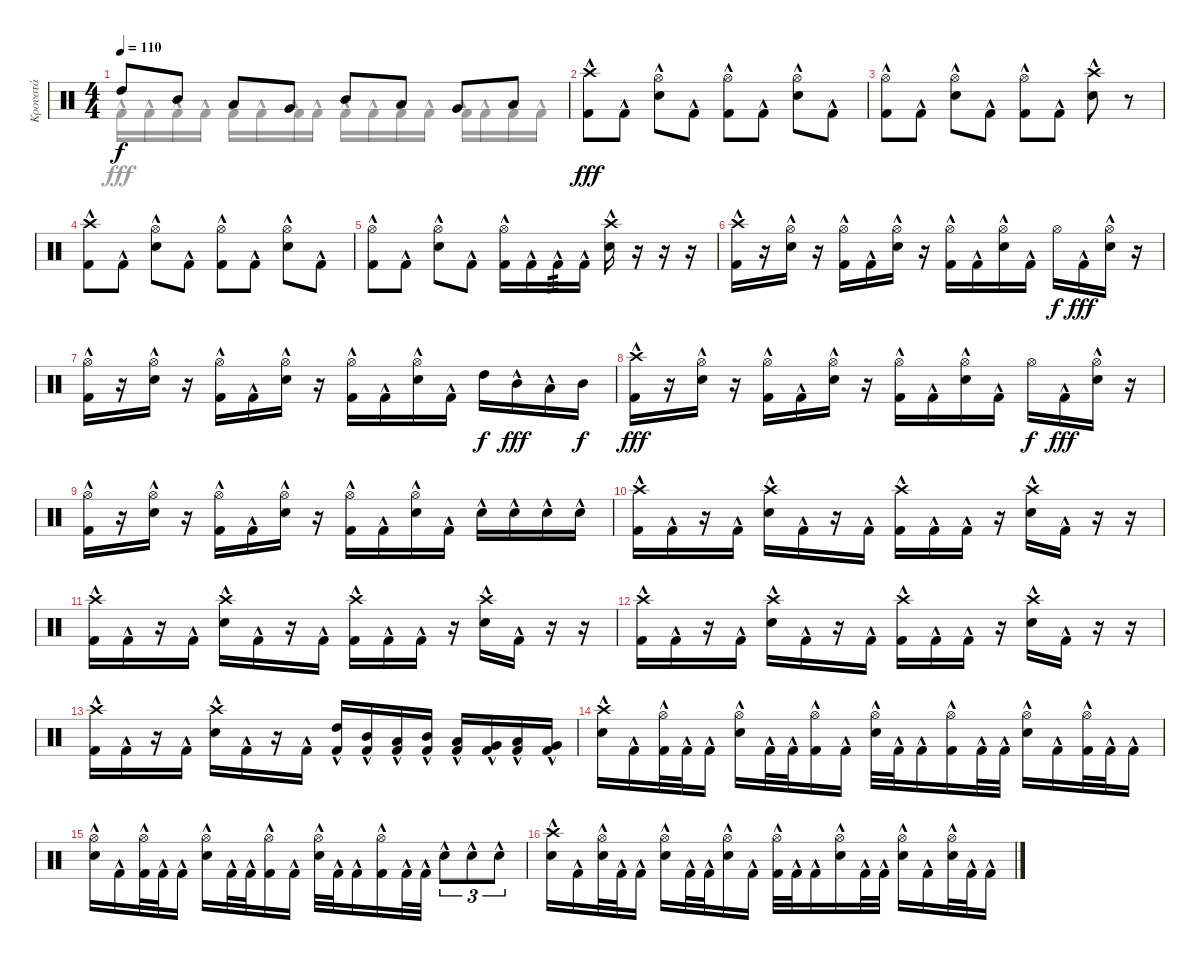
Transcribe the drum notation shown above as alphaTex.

\track ("Κρουστά" "Κρουστά") {instrument percussion}
\staff {score}
\articulation defaults
\voice
\ts (4 4)
\tempo 110
\clef neutral
\ks c "High Tom (hit)".8{dy f} "Mid Tom (hit)".8 "Low Tom (hit)".8 "Very Low Tom (hit)".8 "Mid Tom (hit)".8 "Low Tom (hit)".8 "Very Low Tom (hit)".8 "Low Floor Tom (hit)".8
|
("Crash high (hit)" "Kick (hit) 2"{hac}).8{dy fff} "Kick (hit) 2"{hac}.8 ("Hi-Hat (open)" "Electric Snare (hit)"{hac}).8 "Kick (hit) 2"{hac}.8 ("Hi-Hat (open)" "Kick (hit) 2"{hac}).8 "Kick (hit) 2"{hac}.8 ("Hi-Hat (open)" "Electric Snare (hit)"{hac}).8 "Kick (hit) 2"{hac}.8 |
("Hi-Hat (open)" "Kick (hit) 2"{hac}).8 "Kick (hit) 2"{hac}.8 ("Hi-Hat (open)" "Electric Snare (hit)"{hac}).8 "Kick (hit) 2"{hac}.8 ("Hi-Hat (open)" "Kick (hit) 2"{hac}).8 "Kick (hit) 2"{hac}.8 ("Crash high (hit)" "Electric Snare (hit)"{hac}).8 r.8 |
("Crash high (hit)" "Kick (hit) 2"{hac}).8 "Kick (hit) 2"{hac}.8 ("Hi-Hat (open)" "Electric Snare (hit)"{hac}).8 "Kick (hit) 2"{hac}.8 ("Hi-Hat (open)" "Kick (hit) 2"{hac}).8 "Kick (hit) 2"{hac}.8 ("Hi-Hat (open)" "Electric Snare (hit)"{hac}).8 "Kick (hit) 2"{hac}.8 |
("Hi-Hat (open)" "Kick (hit) 2"{hac}).8 "Kick (hit) 2"{hac}.8 ("Hi-Hat (open)" "Electric Snare (hit)"{hac}).8 "Kick (hit) 2"{hac}.8 ("Hi-Hat (open)" "Kick (hit) 2"{hac}).16 "Kick (hit) 2"{hac}.16 "Kick (hit) 2"{hac}.16{tp 3} "Kick (hit) 2"{hac}.16 ("Crash high (hit)" "Electric Snare (hit)"{hac}).16 r.16 r.16 r.16 |
("Crash high (hit)" "Kick (hit) 2"{hac}).16 r.16 ("Hi-Hat (open)" "Electric Snare (hit)"{hac}).16 r.16 ("Hi-Hat (open)" "Kick (hit) 2"{hac}).16 "Kick (hit) 2"{hac}.16 ("Hi-Hat (open)" "Electric Snare (hit)"{hac}).16 r.16 ("Hi-Hat (open)" "Kick (hit) 2"{hac}).16 "Kick (hit) 2"{hac}.16 ("Hi-Hat (open)" "Electric Snare (hit)"{hac}).16 "Kick (hit) 2"{hac}.16 "Hi-Hat (open)".16{dy f} "Kick (hit) 2"{hac}.16{dy fff} ("Hi-Hat (open)" "Electric Snare (hit)"{hac}).16 r.16 |
("Hi-Hat (open)" "Kick (hit) 2"{hac}).16 r.16 ("Hi-Hat (open)" "Electric Snare (hit)"{hac}).16 r.16 ("Hi-Hat (open)" "Kick (hit) 2"{hac}).16 "Kick (hit) 2"{hac}.16 ("Hi-Hat (open)" "Electric Snare (hit)"{hac}).16 r.16 ("Hi-Hat (open)" "Kick (hit) 2"{hac}).16 "Kick (hit) 2"{hac}.16 ("Hi-Hat (open)" "Electric Snare (hit)"{hac}).16 "Kick (hit) 2"{hac}.16 "High Tom (hit)".16{dy f} "Mid Tom (hit)"{hac}.16{dy fff} "Low Tom (hit)"{hac}.16 "Mid Tom (hit)".16{dy f} |
("Crash high (hit)" "Kick (hit) 2"{hac}).16{dy fff} r.16 ("Hi-Hat (open)" "Electric Snare (hit)"{hac}).16 r.16 ("Hi-Hat (open)" "Kick (hit) 2"{hac}).16 "Kick (hit) 2"{hac}.16 ("Hi-Hat (open)" "Electric Snare (hit)"{hac}).16 r.16 ("Hi-Hat (open)" "Kick (hit) 2"{hac}).16 "Kick (hit) 2"{hac}.16 ("Hi-Hat (open)" "Electric Snare (hit)"{hac}).16 "Kick (hit) 2"{hac}.16 "Hi-Hat (open)".16{dy f} "Kick (hit) 2"{hac}.16{dy fff} ("Hi-Hat (open)" "Electric Snare (hit)"{hac}).16 r.16 |
("Hi-Hat (open)" "Kick (hit) 2"{hac}).16 r.16 ("Hi-Hat (open)" "Electric Snare (hit)"{hac}).16 r.16 ("Hi-Hat (open)" "Kick (hit) 2"{hac}).16 "Kick (hit) 2"{hac}.16 ("Hi-Hat (open)" "Electric Snare (hit)"{hac}).16 r.16 ("Hi-Hat (open)" "Kick (hit) 2"{hac}).16 "Kick (hit) 2"{hac}.16 ("Hi-Hat (open)" "Electric Snare (hit)"{hac}).16 "Kick (hit) 2"{hac}.16 "Electric Snare (hit)"{hac}.16 "Electric Snare (hit)"{hac}.16 "Electric Snare (hit)"{hac}.16 "Electric Snare (hit)"{hac}.16 |
("Crash high (hit)" "Kick (hit) 2"{hac}).16 "Kick (hit) 2"{hac}.16 r.16 "Kick (hit) 2"{hac}.16 ("Crash high (hit)" "Electric Snare (hit)"{hac}).16 "Kick (hit) 2"{hac}.16 r.16 "Kick (hit) 2"{hac}.16 ("Crash high (hit)" "Kick (hit) 2"{hac}).16 "Kick (hit) 2"{hac}.16 "Kick (hit) 2"{hac}.16 r.16 ("Crash high (hit)" "Electric Snare (hit)"{hac}).16 "Kick (hit) 2"{hac}.16 r.16 r.16 |
("Crash high (hit)" "Kick (hit) 2"{hac}).16 "Kick (hit) 2"{hac}.16 r.16 "Kick (hit) 2"{hac}.16 ("Crash high (hit)" "Electric Snare (hit)"{hac}).16 "Kick (hit) 2"{hac}.16 r.16 "Kick (hit) 2"{hac}.16 ("Crash high (hit)" "Kick (hit) 2"{hac}).16 "Kick (hit) 2"{hac}.16 "Kick (hit) 2"{hac}.16 r.16 ("Crash high (hit)" "Electric Snare (hit)"{hac}).16 "Kick (hit) 2"{hac}.16 r.16 r.16 |
("Crash high (hit)" "Kick (hit) 2"{hac}).16 "Kick (hit) 2"{hac}.16 r.16 "Kick (hit) 2"{hac}.16 ("Crash high (hit)" "Electric Snare (hit)"{hac}).16 "Kick (hit) 2"{hac}.16 r.16 "Kick (hit) 2"{hac}.16 ("Crash high (hit)" "Kick (hit) 2"{hac}).16 "Kick (hit) 2"{hac}.16 "Kick (hit) 2"{hac}.16 r.16 ("Crash high (hit)" "Electric Snare (hit)"{hac}).16 "Kick (hit) 2"{hac}.16 r.16 r.16 |
("Crash high (hit)" "Kick (hit) 2"{hac}).16 "Kick (hit) 2"{hac}.16 r.16 "Kick (hit) 2"{hac}.16 ("Crash high (hit)" "Electric Snare (hit)"{hac}).16 "Kick (hit) 2"{hac}.16 r.16 "Kick (hit) 2"{hac}.16 ("High Tom (hit)" "Kick (hit) 2"{hac}).16 ("Mid Tom (hit)" "Kick (hit) 2"{hac}).16 ("Low Tom (hit)" "Kick (hit) 2"{hac}).16 ("Mid Tom (hit)" "Kick (hit) 2"{hac}).16 ("Low Tom (hit)" "Kick (hit) 2"{hac}).16 ("Very Low Tom (hit)" "Kick (hit) 2"{hac}).16 ("Low Tom (hit)" "Kick (hit) 2"{hac}).16 ("Very Low Tom (hit)" "Kick (hit) 2"{hac}).16 |
("Crash high (hit)" "Electric Snare (hit)"{hac}).16 "Kick (hit) 2"{hac}.16 ("Hi-Hat (open)" "Kick (hit) 2"{hac}).32 "Kick (hit) 2"{hac}.32 "Kick (hit) 2"{hac}.16 ("Hi-Hat (open)" "Electric Snare (hit)"{hac}).16 "Kick (hit) 2"{hac}.32 "Kick (hit) 2"{hac}.32 ("Hi-Hat (open)" "Kick (hit) 2"{hac}).16 "Kick (hit) 2"{hac}.16 ("Hi-Hat (open)" "Electric Snare (hit)"{hac}).32 "Kick (hit) 2"{hac}.32 "Kick (hit) 2"{hac}.16 ("Hi-Hat (open)" "Kick (hit) 2"{hac}).16 "Kick (hit) 2"{hac}.32 "Kick (hit) 2"{hac}.32 ("Hi-Hat (open)" "Electric Snare (hit)"{hac}).16 "Kick (hit) 2"{hac}.16 ("Hi-Hat (open)" "Kick (hit) 2"{hac}).32 "Kick (hit) 2"{hac}.32 "Kick (hit) 2"{hac}.16 |
("Hi-Hat (open)" "Electric Snare (hit)"{hac}).16 "Kick (hit) 2"{hac}.16 ("Hi-Hat (open)" "Kick (hit) 2"{hac}).32 "Kick (hit) 2"{hac}.32 "Kick (hit) 2"{hac}.16 ("Hi-Hat (open)" "Electric Snare (hit)"{hac}).16 "Kick (hit) 2"{hac}.32 "Kick (hit) 2"{hac}.32 ("Hi-Hat (open)" "Kick (hit) 2"{hac}).16 "Kick (hit) 2"{hac}.16 ("Hi-Hat (open)" "Electric Snare (hit)"{hac}).32 "Kick (hit) 2"{hac}.32 "Kick (hit) 2"{hac}.16 ("Hi-Hat (open)" "Kick (hit) 2"{hac}).16 "Kick (hit) 2"{hac}.32 "Kick (hit) 2"{hac}.32 "Electric Snare (hit)"{hac}.8{tu (3 2)} "Electric Snare (hit)"{hac}.8{tu (3 2)} "Electric Snare (hit)"{hac}.8{tu (3 2)} |
("Crash high (hit)" "Electric Snare (hit)"{hac}).16 "Kick (hit) 2"{hac}.16 ("Hi-Hat (open)" "Electric Snare (hit)"{hac}).32 "Kick (hit) 2"{hac}.32 "Kick (hit) 2"{hac}.16 ("Hi-Hat (open)" "Electric Snare (hit)"{hac}).16 "Kick (hit) 2"{hac}.32 "Kick (hit) 2"{hac}.32 ("Hi-Hat (open)" "Electric Snare (hit)"{hac}).16 "Kick (hit) 2"{hac}.16 ("Hi-Hat (open)" "Kick (hit) 2"{hac}).32 "Kick (hit) 2"{hac}.32 "Kick (hit) 2"{hac}.16 ("Hi-Hat (open)" "Electric Snare (hit)"{hac}).16 "Kick (hit) 2"{hac}.32 "Kick (hit) 2"{hac}.32 ("Hi-Hat (open)" "Electric Snare (hit)"{hac}).16 "Kick (hit) 2"{hac}.16 ("Hi-Hat (open)" "Electric Snare (hit)"{hac}).32 "Kick (hit) 2"{hac}.32 "Kick (hit) 2"{hac}.16
\voice
\clef neutral
\ottava regular
\simile none
\ks c "Kick (hit) 2"{hac}.16{dy fff} "Kick (hit) 2"{hac}.16 "Kick (hit) 2"{hac}.16 "Kick (hit) 2"{hac}.16 "Kick (hit) 2"{hac}.16 "Kick (hit) 2"{hac}.16 "Kick (hit) 2"{hac}.16 "Kick (hit) 2"{hac}.16 "Kick (hit) 2"{hac}.16 "Kick (hit) 2"{hac}.16 "Kick (hit) 2"{hac}.16 "Kick (hit) 2"{hac}.16 "Kick (hit) 2"{hac}.16 "Kick (hit) 2"{hac}.16 "Kick (hit) 2"{hac}.16 "Kick (hit) 2"{hac}.16
|
|
|
|
|
|
|
|
|
|
|
|
|
|
|
